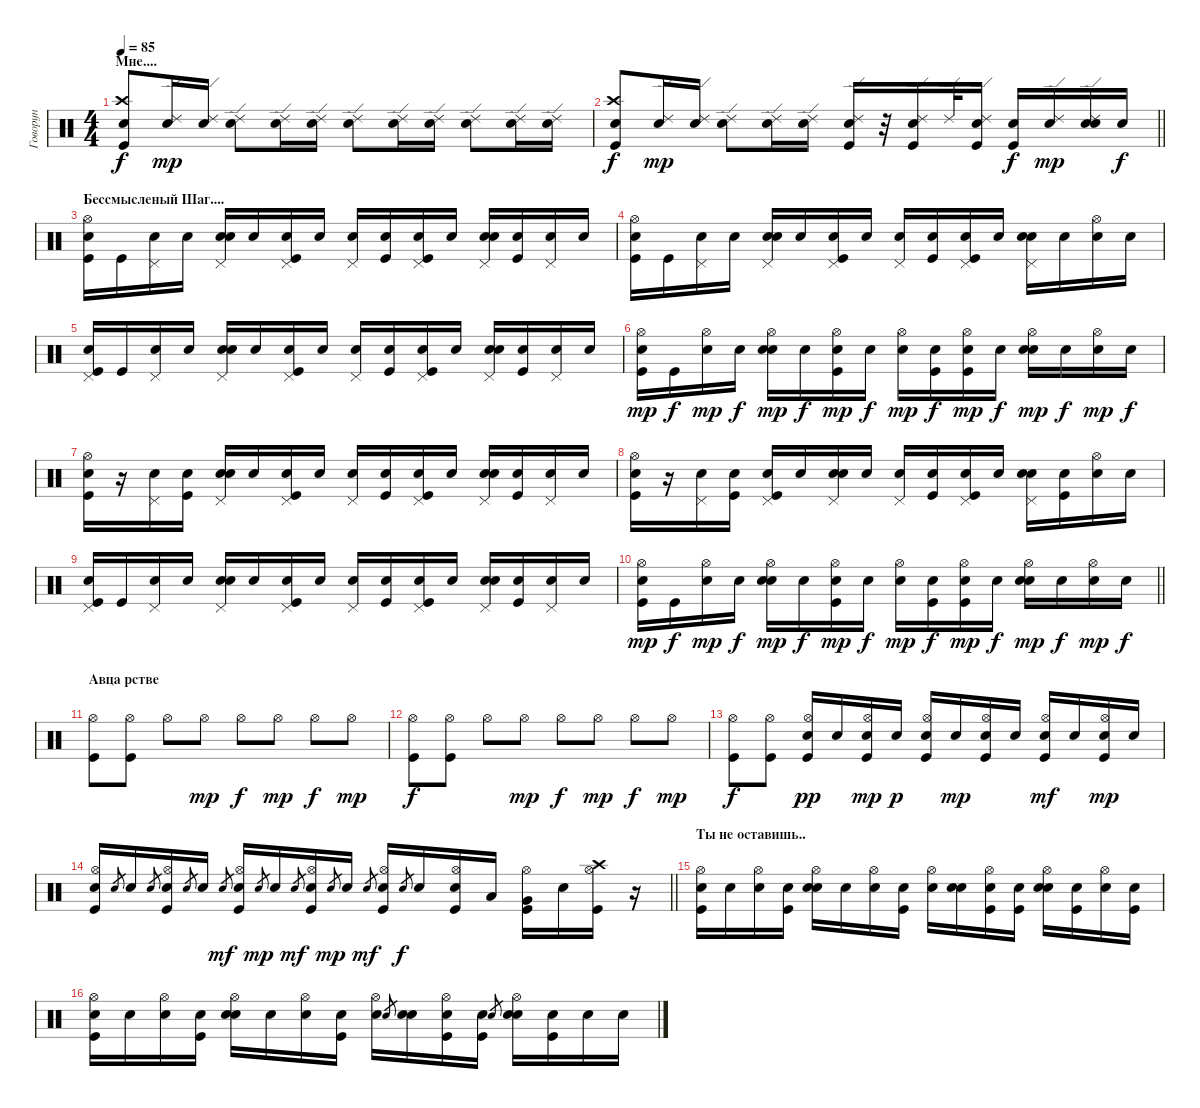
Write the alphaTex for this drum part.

\track ("Говорун" "Говорун") {instrument percussion}
\staff {score}
\articulation defaults
\ts (4 4)
\section ("" "Мне....")
\tempo 85
\clef neutral
\ks c
("Kick (hit)" "Crash high (hit)" "Snare (hit)"{x}).8{dy f} ("Ride (edge) 2" "Snare (hit)"{x}).16{dy mp} ("Ride (edge) 2" "Snare (hit)"{x}).16 ("Ride (edge) 2" "Snare (hit)"{x}).8 ("Ride (edge) 2" "Snare (hit)"{x}).16 ("Ride (edge) 2" "Snare (hit)"{x}).16 ("Ride (edge) 2" "Snare (hit)"{x}).8 ("Ride (edge) 2" "Snare (hit)"{x}).16 ("Ride (edge) 2" "Snare (hit)"{x}).16 ("Ride (edge) 2" "Snare (hit)"{x}).8 ("Ride (edge) 2" "Snare (hit)"{x}).16 ("Ride (edge) 2" "Snare (hit)"{x}).16 |
\barLineRight lightlight
("Kick (hit)" "Crash high (hit)" "Snare (hit)"{x}).8{dy f} ("Ride (edge) 2" "Snare (hit)"{x}).16{dy mp} ("Ride (edge) 2" "Snare (hit)"{x}).16 ("Ride (edge) 2" "Snare (hit)"{x}).8 ("Ride (edge) 2" "Snare (hit)"{x}).16 ("Ride (edge) 2" "Snare (hit)"{x}).16 ("Kick (hit)" "Ride (edge) 2" "Snare (hit)"{x}).16 r.32 ("Kick (hit)" "Ride (edge) 2" "Snare (hit)"{x}).16 "Ride (edge) 2".32 ("Kick (hit)" "Ride (edge) 2" "Snare (hit)"{x}).16 ("Kick (hit)" "Snare (hit)"{x}).16{dy f} ("Ride (edge) 2" "Snare (hit)"{x}).16{dy mp} ("Snare (hit) 2" "Ride (edge) 2" "Snare (hit)"{x}).16 "Snare (hit)"{x}.16{dy f} |
\section ("" "Бессмысленый Шаг....")
("Snare (hit)"{x} "Hi-Hat (open)" "Kick (hit)").16 "Kick (hit)".16 ("Snare (hit)"{x} "Pedal Hi-Hat (hit)").16 "Snare (hit)"{x}.16 ("Snare (hit)"{x} "Pedal Hi-Hat (hit)" "Electric Snare (hit)").16 "Snare (hit)"{x}.16 ("Snare (hit)"{x} "Pedal Hi-Hat (hit)" "Kick (hit)").16 "Snare (hit)"{x}.16 ("Snare (hit)"{x} "Pedal Hi-Hat (hit)").16 ("Snare (hit)"{x} "Kick (hit)").16 ("Snare (hit)"{x} "Pedal Hi-Hat (hit)" "Kick (hit)").16 "Snare (hit)"{x}.16 ("Snare (hit)"{x} "Pedal Hi-Hat (hit)" "Electric Snare (hit)").16 ("Snare (hit)"{x} "Kick (hit)").16 ("Snare (hit)"{x} "Pedal Hi-Hat (hit)").16 "Snare (hit)"{x}.16 |
("Snare (hit)"{x} "Hi-Hat (open)" "Kick (hit)").16 "Kick (hit)".16 ("Snare (hit)"{x} "Pedal Hi-Hat (hit)").16 "Snare (hit)"{x}.16 ("Snare (hit)"{x} "Pedal Hi-Hat (hit)" "Electric Snare (hit)").16 "Snare (hit)"{x}.16 ("Snare (hit)"{x} "Pedal Hi-Hat (hit)" "Kick (hit)").16 "Snare (hit)"{x}.16 ("Snare (hit)"{x} "Pedal Hi-Hat (hit)").16 ("Snare (hit)"{x} "Kick (hit)").16 ("Snare (hit)"{x} "Pedal Hi-Hat (hit)" "Kick (hit)").16 "Snare (hit)"{x}.16 ("Snare (hit)"{x} "Pedal Hi-Hat (hit)" "Electric Snare (hit)").16 "Snare (hit)"{x}.16 ("Snare (hit)"{x} "Hi-Hat (open)").16 "Snare (hit)"{x}.16 |
("Snare (hit)"{x} "Pedal Hi-Hat (hit)" "Kick (hit)").16 "Kick (hit)".16 ("Snare (hit)"{x} "Pedal Hi-Hat (hit)").16 "Snare (hit)"{x}.16 ("Snare (hit)"{x} "Pedal Hi-Hat (hit)" "Electric Snare (hit)").16 "Snare (hit)"{x}.16 ("Snare (hit)"{x} "Pedal Hi-Hat (hit)" "Kick (hit)").16 "Snare (hit)"{x}.16 ("Snare (hit)"{x} "Pedal Hi-Hat (hit)").16 ("Snare (hit)"{x} "Kick (hit)").16 ("Snare (hit)"{x} "Pedal Hi-Hat (hit)" "Kick (hit)").16 "Snare (hit)"{x}.16 ("Snare (hit)"{x} "Pedal Hi-Hat (hit)" "Electric Snare (hit)").16 ("Snare (hit)"{x} "Kick (hit)").16 ("Snare (hit)"{x} "Pedal Hi-Hat (hit)").16 "Snare (hit)"{x}.16 |
("Snare (hit)"{x} "Hi-Hat (open)" "Kick (hit)").16{dy mp} "Kick (hit)".16{dy f} ("Snare (hit)"{x} "Hi-Hat (open)").16{dy mp} "Snare (hit)"{x}.16{dy f} ("Snare (hit)"{x} "Hi-Hat (open)" "Electric Snare (hit)").16{dy mp} "Snare (hit)"{x}.16{dy f} ("Snare (hit)"{x} "Hi-Hat (open)" "Kick (hit)").16{dy mp} "Snare (hit)"{x}.16{dy f} ("Snare (hit)"{x} "Hi-Hat (open)").16{dy mp} ("Snare (hit)"{x} "Kick (hit)").16{dy f} ("Snare (hit)"{x} "Hi-Hat (open)" "Kick (hit)").16{dy mp} "Snare (hit)"{x}.16{dy f} ("Snare (hit)"{x} "Hi-Hat (open)" "Electric Snare (hit)").16{dy mp} "Snare (hit)"{x}.16{dy f} ("Snare (hit)"{x} "Hi-Hat (open)").16{dy mp} "Snare (hit)"{x}.16{dy f} |
("Snare (hit)"{x} "Hi-Hat (open)" "Kick (hit)").16 r.16 ("Snare (hit)"{x} "Pedal Hi-Hat (hit)").16 ("Snare (hit)"{x} "Kick (hit)").16 ("Snare (hit)"{x} "Pedal Hi-Hat (hit)" "Electric Snare (hit)").16 "Snare (hit)"{x}.16 ("Snare (hit)"{x} "Pedal Hi-Hat (hit)" "Kick (hit)").16 "Snare (hit)"{x}.16 ("Snare (hit)"{x} "Pedal Hi-Hat (hit)").16 ("Snare (hit)"{x} "Kick (hit)").16 ("Snare (hit)"{x} "Pedal Hi-Hat (hit)" "Kick (hit)").16 "Snare (hit)"{x}.16 ("Snare (hit)"{x} "Pedal Hi-Hat (hit)" "Electric Snare (hit)").16 ("Snare (hit)"{x} "Kick (hit)").16 ("Snare (hit)"{x} "Pedal Hi-Hat (hit)").16 "Snare (hit)"{x}.16 |
("Snare (hit)"{x} "Hi-Hat (open)" "Kick (hit)").16 r.16 ("Snare (hit)"{x} "Pedal Hi-Hat (hit)").16 ("Snare (hit)"{x} "Kick (hit)").16 ("Snare (hit)"{x} "Pedal Hi-Hat (hit)" "Kick (hit)").16 "Snare (hit)"{x}.16 ("Snare (hit)"{x} "Pedal Hi-Hat (hit)" "Snare (hit) 2").16 "Snare (hit)"{x}.16 ("Snare (hit)"{x} "Pedal Hi-Hat (hit)").16 ("Snare (hit)"{x} "Kick (hit)").16 ("Snare (hit)"{x} "Pedal Hi-Hat (hit)" "Kick (hit)").16 "Snare (hit)"{x}.16 ("Snare (hit)"{x} "Pedal Hi-Hat (hit)" "Snare (hit) 2").16 ("Snare (hit)"{x} "Kick (hit)").16 ("Snare (hit)"{x} "Hi-Hat (open)").16 "Snare (hit)"{x}.16 |
("Snare (hit)"{x} "Pedal Hi-Hat (hit)" "Kick (hit)").16 "Kick (hit)".16 ("Snare (hit)"{x} "Pedal Hi-Hat (hit)").16 "Snare (hit)"{x}.16 ("Snare (hit)"{x} "Pedal Hi-Hat (hit)" "Electric Snare (hit)").16 "Snare (hit)"{x}.16 ("Snare (hit)"{x} "Pedal Hi-Hat (hit)" "Kick (hit)").16 "Snare (hit)"{x}.16 ("Snare (hit)"{x} "Pedal Hi-Hat (hit)").16 ("Snare (hit)"{x} "Kick (hit)").16 ("Snare (hit)"{x} "Pedal Hi-Hat (hit)" "Kick (hit)").16 "Snare (hit)"{x}.16 ("Snare (hit)"{x} "Pedal Hi-Hat (hit)" "Electric Snare (hit)").16 ("Snare (hit)"{x} "Kick (hit)").16 ("Snare (hit)"{x} "Pedal Hi-Hat (hit)").16 "Snare (hit)"{x}.16 |
\barLineRight lightlight
("Snare (hit)"{x} "Hi-Hat (open)" "Kick (hit)").16{dy mp} "Kick (hit)".16{dy f} ("Snare (hit)"{x} "Hi-Hat (open)").16{dy mp} "Snare (hit)"{x}.16{dy f} ("Snare (hit)"{x} "Hi-Hat (open)" "Electric Snare (hit)").16{dy mp} "Snare (hit)"{x}.16{dy f} ("Snare (hit)"{x} "Hi-Hat (open)" "Kick (hit)").16{dy mp} "Snare (hit)"{x}.16{dy f} ("Snare (hit)"{x} "Hi-Hat (open)").16{dy mp} ("Snare (hit)"{x} "Kick (hit)").16{dy f} ("Snare (hit)"{x} "Hi-Hat (open)" "Kick (hit)").16{dy mp} "Snare (hit)"{x}.16{dy f} ("Snare (hit)"{x} "Hi-Hat (open)" "Electric Snare (hit)").16{dy mp} "Snare (hit)"{x}.16{dy f} ("Snare (hit)"{x} "Hi-Hat (open)").16{dy mp} "Snare (hit)"{x}.16{dy f} |
\section ("" "Авца рстве")
("Hi-Hat (open)" "Kick (hit)").8 ("Hi-Hat (open)" "Kick (hit)").8 "Hi-Hat (open)".8 "Hi-Hat (open)".8{dy mp} "Hi-Hat (open)".8{dy f} "Hi-Hat (open)".8{dy mp} "Hi-Hat (open)".8{dy f} "Hi-Hat (open)".8{dy mp} |
("Hi-Hat (open)" "Kick (hit)").8{dy f} ("Hi-Hat (open)" "Kick (hit)").8 "Hi-Hat (open)".8 "Hi-Hat (open)".8{dy mp} "Hi-Hat (open)".8{dy f} "Hi-Hat (open)".8{dy mp} "Hi-Hat (open)".8{dy f} "Hi-Hat (open)".8{dy mp} |
("Hi-Hat (open)" "Kick (hit)").8{dy f} ("Hi-Hat (open)" "Kick (hit)").8 ("Kick (hit)" "Electric Snare (hit)" "Hi-Hat (open)").16{dy pp} "Electric Snare (hit)".16 ("Kick (hit)" "Electric Snare (hit)" "Hi-Hat (open)").16{dy mp} "Electric Snare (hit)".16{dy p} ("Kick (hit)" "Electric Snare (hit)" "Hi-Hat (open)").16 "Electric Snare (hit)".16{dy mp} ("Kick (hit)" "Electric Snare (hit)" "Hi-Hat (open)").16 "Electric Snare (hit)".16 ("Kick (hit)" "Electric Snare (hit)" "Hi-Hat (open)").16{dy mf} "Electric Snare (hit)".16 ("Kick (hit)" "Electric Snare (hit)" "Hi-Hat (open)").16{dy mp} "Electric Snare (hit)".16 |
\barLineRight lightlight
("Kick (hit)" "Electric Snare (hit)" "Hi-Hat (open)").16 "Electric Snare (hit)".8{gr} "Electric Snare (hit)".16 "Electric Snare (hit)".8{gr} ("Kick (hit)" "Electric Snare (hit)" "Hi-Hat (open)").16 "Electric Snare (hit)".8{gr} "Electric Snare (hit)".16 "Electric Snare (hit)".8{gr dy mf} ("Kick (hit)" "Electric Snare (hit)" "Hi-Hat (open)").16 "Electric Snare (hit)".8{gr dy mp} "Electric Snare (hit)".16 "Electric Snare (hit)".8{gr dy mf} ("Kick (hit)" "Electric Snare (hit)" "Hi-Hat (open)").16 "Electric Snare (hit)".8{gr dy mp} "Electric Snare (hit)".16 "Electric Snare (hit)".8{gr dy mf} ("Kick (hit)" "Electric Snare (hit)" "Hi-Hat (open)").16 "Electric Snare (hit)".8{gr dy f} "Electric Snare (hit)".16 ("Kick (hit)" "Electric Snare (hit)" "Hi-Hat (open)").16 "Low Tom (hit)".16 ("Kick (hit)" "Very Low Tom (hit)" "Hi-Hat (open)").16 "Electric Snare (hit)".16 ("Kick (hit)" "Crash high (hit)" "Hi-Hat (open)").16 r.16 |
\section ("" "Ты не оставишь..")
("Kick (hit)" "Hi-Hat (open)" "Snare (hit)"{x}).16 "Snare (hit)"{x}.16 ("Hi-Hat (open)" "Snare (hit)"{x}).16 ("Kick (hit)" "Snare (hit)"{x}).16 ("Snare (hit) 2" "Hi-Hat (open)" "Snare (hit)"{x}).16 "Snare (hit)"{x}.16 ("Hi-Hat (open)" "Snare (hit)"{x}).16 ("Kick (hit)" "Snare (hit)"{x}).16 ("Hi-Hat (open)" "Snare (hit)"{x}).16 ("Snare (hit) 2" "Snare (hit)"{x}).16 ("Kick (hit)" "Hi-Hat (open)" "Snare (hit)"{x}).16 ("Kick (hit)" "Snare (hit)"{x}).16 ("Snare (hit) 2" "Hi-Hat (open)" "Snare (hit)"{x}).16 ("Kick (hit)" "Snare (hit)"{x}).16 ("Hi-Hat (open)" "Snare (hit)"{x}).16 ("Kick (hit)" "Snare (hit)"{x}).16 |
("Kick (hit)" "Hi-Hat (open)" "Snare (hit)"{x}).16 "Snare (hit)"{x}.16 ("Hi-Hat (open)" "Snare (hit)"{x}).16 ("Kick (hit)" "Snare (hit)"{x}).16 ("Snare (hit) 2" "Hi-Hat (open)" "Snare (hit)"{x}).16 "Snare (hit)"{x}.16 ("Hi-Hat (open)" "Snare (hit)"{x}).16 ("Kick (hit)" "Snare (hit)"{x}).16 ("Hi-Hat (open)" "Snare (hit)"{x}).16 "Snare (hit) 2".8{gr} ("Snare (hit) 2" "Snare (hit)"{x}).16 ("Kick (hit)" "Hi-Hat (open)" "Snare (hit)"{x}).16 ("Kick (hit)" "Snare (hit)"{x}).16 "Snare (hit) 2".8{gr} ("Snare (hit) 2" "Hi-Hat (open)" "Snare (hit)"{x}).16 ("Kick (hit)" "Snare (hit)"{x}).16 "Snare (hit)"{x}.16 "Snare (hit)"{x}.16
